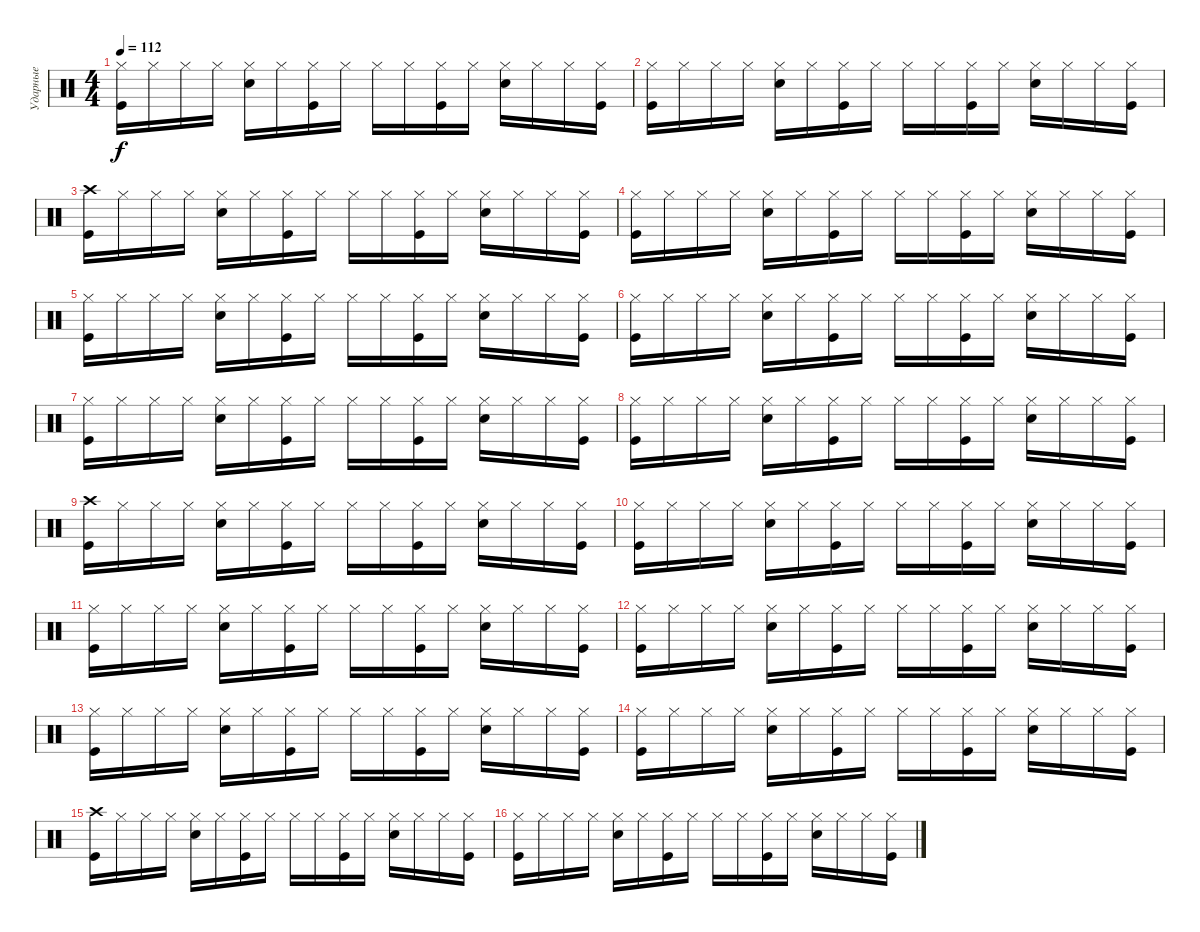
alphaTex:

\track ("Ударные" "Ударные") {instrument percussion}
\staff {score}
\articulation defaults
\ts (4 4)
\tempo 112
\clef neutral
\ks c
("Hi-Hat (closed)" "Kick (hit)").16{dy f} "Hi-Hat (closed)".16 "Hi-Hat (closed)".16 "Hi-Hat (closed)".16 ("Hi-Hat (closed)" "Electric Snare (hit)").16 "Hi-Hat (closed)".16 ("Hi-Hat (closed)" "Kick (hit)").16 "Hi-Hat (closed)".16 "Hi-Hat (closed)".16 "Hi-Hat (closed)".16 ("Hi-Hat (closed)" "Kick (hit)").16 "Hi-Hat (closed)".16 ("Hi-Hat (closed)" "Electric Snare (hit)").16 "Hi-Hat (closed)".16 "Hi-Hat (closed)".16 ("Hi-Hat (closed)" "Kick (hit)").16 |
("Hi-Hat (closed)" "Kick (hit)").16 "Hi-Hat (closed)".16 "Hi-Hat (closed)".16 "Hi-Hat (closed)".16 ("Hi-Hat (closed)" "Electric Snare (hit)").16 "Hi-Hat (closed)".16 ("Hi-Hat (closed)" "Kick (hit)").16 "Hi-Hat (closed)".16 "Hi-Hat (closed)".16 "Hi-Hat (closed)".16 ("Hi-Hat (closed)" "Kick (hit)").16 "Hi-Hat (closed)".16 ("Hi-Hat (closed)" "Electric Snare (hit)").16 "Hi-Hat (closed)".16 "Hi-Hat (closed)".16 ("Hi-Hat (closed)" "Kick (hit)").16 |
("Crash high (hit)" "Kick (hit)").16 "Hi-Hat (closed)".16 "Hi-Hat (closed)".16 "Hi-Hat (closed)".16 ("Hi-Hat (closed)" "Electric Snare (hit)").16 "Hi-Hat (closed)".16 ("Hi-Hat (closed)" "Kick (hit)").16 "Hi-Hat (closed)".16 "Hi-Hat (closed)".16 "Hi-Hat (closed)".16 ("Hi-Hat (closed)" "Kick (hit)").16 "Hi-Hat (closed)".16 ("Hi-Hat (closed)" "Electric Snare (hit)").16 "Hi-Hat (closed)".16 "Hi-Hat (closed)".16 ("Hi-Hat (closed)" "Kick (hit)").16 |
("Hi-Hat (closed)" "Kick (hit)").16 "Hi-Hat (closed)".16 "Hi-Hat (closed)".16 "Hi-Hat (closed)".16 ("Hi-Hat (closed)" "Electric Snare (hit)").16 "Hi-Hat (closed)".16 ("Hi-Hat (closed)" "Kick (hit)").16 "Hi-Hat (closed)".16 "Hi-Hat (closed)".16 "Hi-Hat (closed)".16 ("Hi-Hat (closed)" "Kick (hit)").16 "Hi-Hat (closed)".16 ("Hi-Hat (closed)" "Electric Snare (hit)").16 "Hi-Hat (closed)".16 "Hi-Hat (closed)".16 ("Hi-Hat (closed)" "Kick (hit)").16 |
("Hi-Hat (closed)" "Kick (hit)").16 "Hi-Hat (closed)".16 "Hi-Hat (closed)".16 "Hi-Hat (closed)".16 ("Hi-Hat (closed)" "Electric Snare (hit)").16 "Hi-Hat (closed)".16 ("Hi-Hat (closed)" "Kick (hit)").16 "Hi-Hat (closed)".16 "Hi-Hat (closed)".16 "Hi-Hat (closed)".16 ("Hi-Hat (closed)" "Kick (hit)").16 "Hi-Hat (closed)".16 ("Hi-Hat (closed)" "Electric Snare (hit)").16 "Hi-Hat (closed)".16 "Hi-Hat (closed)".16 ("Hi-Hat (closed)" "Kick (hit)").16 |
("Hi-Hat (closed)" "Kick (hit)").16 "Hi-Hat (closed)".16 "Hi-Hat (closed)".16 "Hi-Hat (closed)".16 ("Hi-Hat (closed)" "Electric Snare (hit)").16 "Hi-Hat (closed)".16 ("Hi-Hat (closed)" "Kick (hit)").16 "Hi-Hat (closed)".16 "Hi-Hat (closed)".16 "Hi-Hat (closed)".16 ("Hi-Hat (closed)" "Kick (hit)").16 "Hi-Hat (closed)".16 ("Hi-Hat (closed)" "Electric Snare (hit)").16 "Hi-Hat (closed)".16 "Hi-Hat (closed)".16 ("Hi-Hat (closed)" "Kick (hit)").16 |
("Hi-Hat (closed)" "Kick (hit)").16 "Hi-Hat (closed)".16 "Hi-Hat (closed)".16 "Hi-Hat (closed)".16 ("Hi-Hat (closed)" "Electric Snare (hit)").16 "Hi-Hat (closed)".16 ("Hi-Hat (closed)" "Kick (hit)").16 "Hi-Hat (closed)".16 "Hi-Hat (closed)".16 "Hi-Hat (closed)".16 ("Hi-Hat (closed)" "Kick (hit)").16 "Hi-Hat (closed)".16 ("Hi-Hat (closed)" "Electric Snare (hit)").16 "Hi-Hat (closed)".16 "Hi-Hat (closed)".16 ("Hi-Hat (closed)" "Kick (hit)").16 |
("Hi-Hat (closed)" "Kick (hit)").16 "Hi-Hat (closed)".16 "Hi-Hat (closed)".16 "Hi-Hat (closed)".16 ("Hi-Hat (closed)" "Electric Snare (hit)").16 "Hi-Hat (closed)".16 ("Hi-Hat (closed)" "Kick (hit)").16 "Hi-Hat (closed)".16 "Hi-Hat (closed)".16 "Hi-Hat (closed)".16 ("Hi-Hat (closed)" "Kick (hit)").16 "Hi-Hat (closed)".16 ("Hi-Hat (closed)" "Electric Snare (hit)").16 "Hi-Hat (closed)".16 "Hi-Hat (closed)".16 ("Hi-Hat (closed)" "Kick (hit)").16 |
("Crash high (hit)" "Kick (hit)").16 "Hi-Hat (closed)".16 "Hi-Hat (closed)".16 "Hi-Hat (closed)".16 ("Hi-Hat (closed)" "Electric Snare (hit)").16 "Hi-Hat (closed)".16 ("Hi-Hat (closed)" "Kick (hit)").16 "Hi-Hat (closed)".16 "Hi-Hat (closed)".16 "Hi-Hat (closed)".16 ("Hi-Hat (closed)" "Kick (hit)").16 "Hi-Hat (closed)".16 ("Hi-Hat (closed)" "Electric Snare (hit)").16 "Hi-Hat (closed)".16 "Hi-Hat (closed)".16 ("Hi-Hat (closed)" "Kick (hit)").16 |
("Hi-Hat (closed)" "Kick (hit)").16 "Hi-Hat (closed)".16 "Hi-Hat (closed)".16 "Hi-Hat (closed)".16 ("Hi-Hat (closed)" "Electric Snare (hit)").16 "Hi-Hat (closed)".16 ("Hi-Hat (closed)" "Kick (hit)").16 "Hi-Hat (closed)".16 "Hi-Hat (closed)".16 "Hi-Hat (closed)".16 ("Hi-Hat (closed)" "Kick (hit)").16 "Hi-Hat (closed)".16 ("Hi-Hat (closed)" "Electric Snare (hit)").16 "Hi-Hat (closed)".16 "Hi-Hat (closed)".16 ("Hi-Hat (closed)" "Kick (hit)").16 |
("Hi-Hat (closed)" "Kick (hit)").16 "Hi-Hat (closed)".16 "Hi-Hat (closed)".16 "Hi-Hat (closed)".16 ("Hi-Hat (closed)" "Electric Snare (hit)").16 "Hi-Hat (closed)".16 ("Hi-Hat (closed)" "Kick (hit)").16 "Hi-Hat (closed)".16 "Hi-Hat (closed)".16 "Hi-Hat (closed)".16 ("Hi-Hat (closed)" "Kick (hit)").16 "Hi-Hat (closed)".16 ("Hi-Hat (closed)" "Electric Snare (hit)").16 "Hi-Hat (closed)".16 "Hi-Hat (closed)".16 ("Hi-Hat (closed)" "Kick (hit)").16 |
("Hi-Hat (closed)" "Kick (hit)").16 "Hi-Hat (closed)".16 "Hi-Hat (closed)".16 "Hi-Hat (closed)".16 ("Hi-Hat (closed)" "Electric Snare (hit)").16 "Hi-Hat (closed)".16 ("Hi-Hat (closed)" "Kick (hit)").16 "Hi-Hat (closed)".16 "Hi-Hat (closed)".16 "Hi-Hat (closed)".16 ("Hi-Hat (closed)" "Kick (hit)").16 "Hi-Hat (closed)".16 ("Hi-Hat (closed)" "Electric Snare (hit)").16 "Hi-Hat (closed)".16 "Hi-Hat (closed)".16 ("Hi-Hat (closed)" "Kick (hit)").16 |
("Hi-Hat (closed)" "Kick (hit)").16 "Hi-Hat (closed)".16 "Hi-Hat (closed)".16 "Hi-Hat (closed)".16 ("Hi-Hat (closed)" "Electric Snare (hit)").16 "Hi-Hat (closed)".16 ("Hi-Hat (closed)" "Kick (hit)").16 "Hi-Hat (closed)".16 "Hi-Hat (closed)".16 "Hi-Hat (closed)".16 ("Hi-Hat (closed)" "Kick (hit)").16 "Hi-Hat (closed)".16 ("Hi-Hat (closed)" "Electric Snare (hit)").16 "Hi-Hat (closed)".16 "Hi-Hat (closed)".16 ("Hi-Hat (closed)" "Kick (hit)").16 |
("Hi-Hat (closed)" "Kick (hit)").16 "Hi-Hat (closed)".16 "Hi-Hat (closed)".16 "Hi-Hat (closed)".16 ("Hi-Hat (closed)" "Electric Snare (hit)").16 "Hi-Hat (closed)".16 ("Hi-Hat (closed)" "Kick (hit)").16 "Hi-Hat (closed)".16 "Hi-Hat (closed)".16 "Hi-Hat (closed)".16 ("Hi-Hat (closed)" "Kick (hit)").16 "Hi-Hat (closed)".16 ("Hi-Hat (closed)" "Electric Snare (hit)").16 "Hi-Hat (closed)".16 "Hi-Hat (closed)".16 ("Hi-Hat (closed)" "Kick (hit)").16 |
("Crash high (hit)" "Kick (hit)").16 "Hi-Hat (closed)".16 "Hi-Hat (closed)".16 "Hi-Hat (closed)".16 ("Hi-Hat (closed)" "Electric Snare (hit)").16 "Hi-Hat (closed)".16 ("Hi-Hat (closed)" "Kick (hit)").16 "Hi-Hat (closed)".16 "Hi-Hat (closed)".16 "Hi-Hat (closed)".16 ("Hi-Hat (closed)" "Kick (hit)").16 "Hi-Hat (closed)".16 ("Hi-Hat (closed)" "Electric Snare (hit)").16 "Hi-Hat (closed)".16 "Hi-Hat (closed)".16 ("Hi-Hat (closed)" "Kick (hit)").16 |
("Hi-Hat (closed)" "Kick (hit)").16 "Hi-Hat (closed)".16 "Hi-Hat (closed)".16 "Hi-Hat (closed)".16 ("Hi-Hat (closed)" "Electric Snare (hit)").16 "Hi-Hat (closed)".16 ("Hi-Hat (closed)" "Kick (hit)").16 "Hi-Hat (closed)".16 "Hi-Hat (closed)".16 "Hi-Hat (closed)".16 ("Hi-Hat (closed)" "Kick (hit)").16 "Hi-Hat (closed)".16 ("Hi-Hat (closed)" "Electric Snare (hit)").16 "Hi-Hat (closed)".16 "Hi-Hat (closed)".16 ("Hi-Hat (closed)" "Kick (hit)").16
